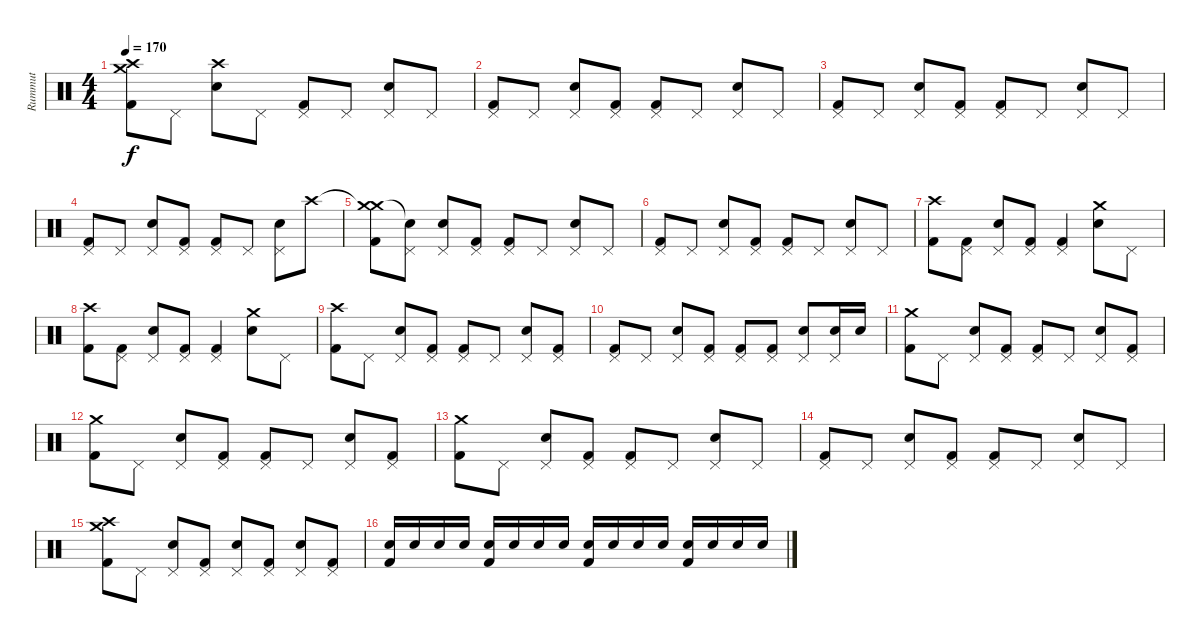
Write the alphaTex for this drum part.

\track ("Rummut" "Rummut") {instrument percussion}
\staff {score}
\articulation defaults
\ts (4 4)
\tempo 170
\clef neutral
\ks c
("Crash high (hit)" "Crash medium (hit)" "Kick (hit) 2").8{dy f} "Pedal Hi-Hat (hit)".8 ("Crash high (hit)" "Electric Snare (hit)").8 "Pedal Hi-Hat (hit)".8 ("Pedal Hi-Hat (hit)" "Kick (hit) 2").8 "Pedal Hi-Hat (hit)".8 ("Pedal Hi-Hat (hit)" "Electric Snare (hit)").8 "Pedal Hi-Hat (hit)".8 |
("Pedal Hi-Hat (hit)" "Kick (hit) 2").8 "Pedal Hi-Hat (hit)".8 ("Pedal Hi-Hat (hit)" "Electric Snare (hit)").8 ("Pedal Hi-Hat (hit)" "Kick (hit) 2").8 ("Pedal Hi-Hat (hit)" "Kick (hit) 2").8 "Pedal Hi-Hat (hit)".8 ("Pedal Hi-Hat (hit)" "Electric Snare (hit)").8 "Pedal Hi-Hat (hit)".8 |
("Pedal Hi-Hat (hit)" "Kick (hit) 2").8 "Pedal Hi-Hat (hit)".8 ("Pedal Hi-Hat (hit)" "Electric Snare (hit)").8 ("Pedal Hi-Hat (hit)" "Kick (hit) 2").8 ("Pedal Hi-Hat (hit)" "Kick (hit) 2").8 "Pedal Hi-Hat (hit)".8 ("Pedal Hi-Hat (hit)" "Electric Snare (hit)").8 "Pedal Hi-Hat (hit)".8 |
("Pedal Hi-Hat (hit)" "Kick (hit) 2").8 "Pedal Hi-Hat (hit)".8 ("Pedal Hi-Hat (hit)" "Electric Snare (hit)").8 ("Pedal Hi-Hat (hit)" "Kick (hit) 2").8 ("Pedal Hi-Hat (hit)" "Kick (hit) 2").8 "Pedal Hi-Hat (hit)".8 ("Pedal Hi-Hat (hit)" "Electric Snare (hit)").8 "Crash high (hit)".8 |
("Crash medium (hit)"{t} "Crash medium (hit)" "Kick (hit) 2").8 ("Pedal Hi-Hat (hit)" "Snare (hit)"{t}).8 ("Pedal Hi-Hat (hit)" "Electric Snare (hit)").8 ("Pedal Hi-Hat (hit)" "Kick (hit) 2").8 ("Pedal Hi-Hat (hit)" "Kick (hit) 2").8 "Pedal Hi-Hat (hit)".8 ("Pedal Hi-Hat (hit)" "Electric Snare (hit)").8 "Pedal Hi-Hat (hit)".8 |
("Pedal Hi-Hat (hit)" "Kick (hit) 2").8 "Pedal Hi-Hat (hit)".8 ("Pedal Hi-Hat (hit)" "Electric Snare (hit)").8 ("Pedal Hi-Hat (hit)" "Kick (hit) 2").8 ("Pedal Hi-Hat (hit)" "Kick (hit) 2").8 "Pedal Hi-Hat (hit)".8 ("Pedal Hi-Hat (hit)" "Electric Snare (hit)").8 "Pedal Hi-Hat (hit)".8 |
("Crash high (hit)" "Kick (hit) 2").8 ("Pedal Hi-Hat (hit)" "Kick (hit) 2").8 ("Pedal Hi-Hat (hit)" "Electric Snare (hit)").8 ("Pedal Hi-Hat (hit)" "Kick (hit) 2").8 ("Pedal Hi-Hat (hit)" "Kick (hit) 2").4 ("Crash medium (hit)" "Electric Snare (hit)").8 "Pedal Hi-Hat (hit)".8 |
("Crash high (hit)" "Kick (hit) 2").8 ("Pedal Hi-Hat (hit)" "Kick (hit) 2").8 ("Pedal Hi-Hat (hit)" "Electric Snare (hit)").8 ("Pedal Hi-Hat (hit)" "Kick (hit) 2").8 ("Pedal Hi-Hat (hit)" "Kick (hit) 2").4 ("Crash medium (hit)" "Electric Snare (hit)").8 "Pedal Hi-Hat (hit)".8 |
("Crash high (hit)" "Kick (hit) 2").8 "Pedal Hi-Hat (hit)".8 ("Pedal Hi-Hat (hit)" "Electric Snare (hit)").8 ("Pedal Hi-Hat (hit)" "Kick (hit) 2").8 ("Pedal Hi-Hat (hit)" "Kick (hit) 2").8 "Pedal Hi-Hat (hit)".8 ("Pedal Hi-Hat (hit)" "Electric Snare (hit)").8 ("Pedal Hi-Hat (hit)" "Kick (hit) 2").8 |
("Pedal Hi-Hat (hit)" "Kick (hit) 2").8 "Pedal Hi-Hat (hit)".8 ("Pedal Hi-Hat (hit)" "Electric Snare (hit)").8 ("Pedal Hi-Hat (hit)" "Kick (hit) 2").8 ("Pedal Hi-Hat (hit)" "Kick (hit) 2").8 ("Pedal Hi-Hat (hit)" "Kick (hit) 2").8 ("Pedal Hi-Hat (hit)" "Electric Snare (hit)").8 ("Pedal Hi-Hat (hit)" "Electric Snare (hit)").16 "Electric Snare (hit)".16 |
("Crash medium (hit)" "Kick (hit) 2").8 "Pedal Hi-Hat (hit)".8 ("Pedal Hi-Hat (hit)" "Electric Snare (hit)").8 ("Pedal Hi-Hat (hit)" "Kick (hit) 2").8 ("Pedal Hi-Hat (hit)" "Kick (hit) 2").8 "Pedal Hi-Hat (hit)".8 ("Pedal Hi-Hat (hit)" "Electric Snare (hit)").8 ("Pedal Hi-Hat (hit)" "Kick (hit) 2").8 |
("Crash medium (hit)" "Kick (hit) 2").8 "Pedal Hi-Hat (hit)".8 ("Pedal Hi-Hat (hit)" "Electric Snare (hit)").8 ("Pedal Hi-Hat (hit)" "Kick (hit) 2").8 ("Pedal Hi-Hat (hit)" "Kick (hit) 2").8 "Pedal Hi-Hat (hit)".8 ("Pedal Hi-Hat (hit)" "Electric Snare (hit)").8 ("Pedal Hi-Hat (hit)" "Kick (hit) 2").8 |
("Crash medium (hit)" "Kick (hit) 2").8 "Pedal Hi-Hat (hit)".8 ("Pedal Hi-Hat (hit)" "Electric Snare (hit)").8 ("Pedal Hi-Hat (hit)" "Kick (hit) 2").8 ("Pedal Hi-Hat (hit)" "Kick (hit) 2").8 "Pedal Hi-Hat (hit)".8 ("Pedal Hi-Hat (hit)" "Electric Snare (hit)").8 "Pedal Hi-Hat (hit)".8 |
("Pedal Hi-Hat (hit)" "Kick (hit) 2").8 "Pedal Hi-Hat (hit)".8 ("Pedal Hi-Hat (hit)" "Electric Snare (hit)").8 ("Pedal Hi-Hat (hit)" "Kick (hit) 2").8 ("Pedal Hi-Hat (hit)" "Kick (hit) 2").8 "Pedal Hi-Hat (hit)".8 ("Pedal Hi-Hat (hit)" "Electric Snare (hit)").8 "Pedal Hi-Hat (hit)".8 |
("Crash medium (hit)" "Crash high (hit)" "Kick (hit) 2").8 "Pedal Hi-Hat (hit)".8 ("Pedal Hi-Hat (hit)" "Electric Snare (hit)").8 ("Pedal Hi-Hat (hit)" "Kick (hit) 2").8 ("Pedal Hi-Hat (hit)" "Electric Snare (hit)").8 ("Pedal Hi-Hat (hit)" "Kick (hit) 2").8 ("Pedal Hi-Hat (hit)" "Electric Snare (hit)").8 ("Pedal Hi-Hat (hit)" "Kick (hit) 2").8 |
("Electric Snare (hit)" "Kick (hit) 2").16 "Electric Snare (hit)".16 "Electric Snare (hit)".16 "Electric Snare (hit)".16 ("Electric Snare (hit)" "Kick (hit) 2").16 "Electric Snare (hit)".16 "Electric Snare (hit)".16 "Electric Snare (hit)".16 ("Electric Snare (hit)" "Kick (hit) 2").16 "Electric Snare (hit)".16 "Electric Snare (hit)".16 "Electric Snare (hit)".16 ("Electric Snare (hit)" "Kick (hit) 2").16 "Electric Snare (hit)".16 "Electric Snare (hit)".16 "Electric Snare (hit)".16
